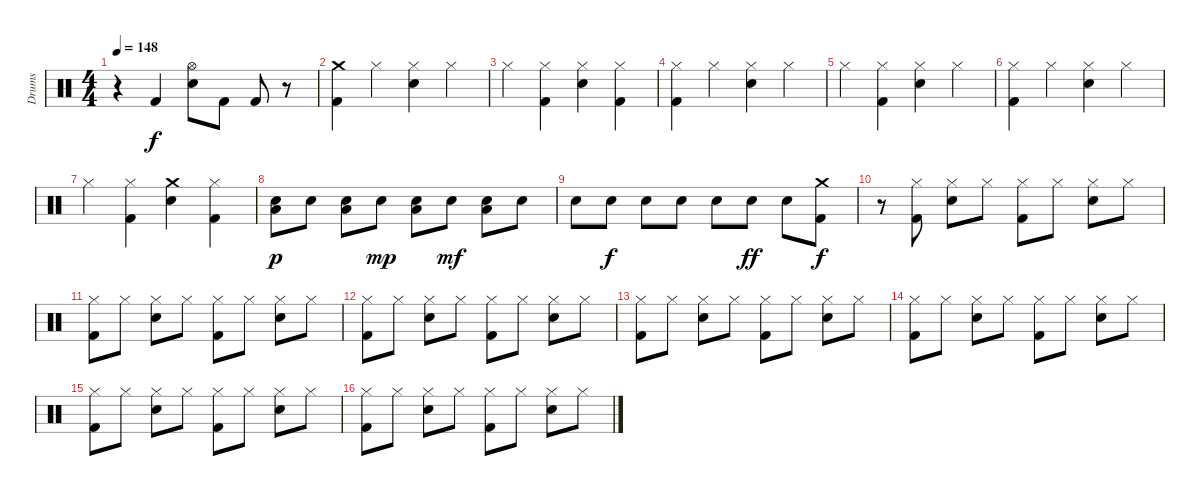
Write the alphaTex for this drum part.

\track ("Drums" "Drums") {instrument percussion}
\staff {score}
\articulation defaults
\ts (4 4)
\tempo 148
\clef neutral
\ks c
r.4{dy f} "Kick (hit) 2".4 ("Snare (hit) 2" "Hi-Hat (open)").8 "Kick (hit) 2".8 "Kick (hit) 2".8 r.8 |
("Kick (hit) 2" "Crash medium (hit)").4 "Hi-Hat (closed)".4 ("Snare (hit) 2" "Hi-Hat (closed)").4 "Hi-Hat (closed)".4 |
"Hi-Hat (closed)".4 ("Kick (hit) 2" "Hi-Hat (closed)").4 ("Snare (hit) 2" "Hi-Hat (closed)").4 ("Kick (hit) 2" "Hi-Hat (closed)").4 |
("Kick (hit) 2" "Hi-Hat (closed)").4 "Hi-Hat (closed)".4 ("Snare (hit) 2" "Hi-Hat (closed)").4 "Hi-Hat (closed)".4 |
"Hi-Hat (closed)".4 ("Kick (hit) 2" "Hi-Hat (closed)").4 ("Snare (hit) 2" "Hi-Hat (closed)").4 "Hi-Hat (closed)".4 |
("Kick (hit) 2" "Hi-Hat (closed)").4 "Hi-Hat (closed)".4 ("Snare (hit) 2" "Hi-Hat (closed)").4 "Hi-Hat (closed)".4 |
"Hi-Hat (closed)".4 ("Kick (hit) 2" "Hi-Hat (closed)").4 ("Snare (hit) 2" "Crash medium (hit)").4 ("Kick (hit) 2" "Hi-Hat (closed)").4 |
("Snare (hit) 2" "Low Tom (hit)").8{dy p} "Snare (hit) 2".8 ("Snare (hit) 2" "Low Tom (hit)").8 "Snare (hit) 2".8{dy mp} ("Snare (hit) 2" "Low Tom (hit)").8 "Snare (hit) 2".8{dy mf} ("Snare (hit) 2" "Low Tom (hit)").8 "Snare (hit) 2".8 |
"Snare (hit) 2".8 "Snare (hit) 2".8{dy f} "Snare (hit) 2".8 "Snare (hit) 2".8 "Snare (hit) 2".8 "Snare (hit) 2".8{dy ff} "Snare (hit) 2".8 ("Kick (hit) 2" "Crash medium (hit)").8{dy f} |
r.8 ("Kick (hit) 2" "Hi-Hat (closed)").8 ("Snare (hit) 2" "Hi-Hat (closed)").8 "Hi-Hat (closed)".8 ("Kick (hit) 2" "Hi-Hat (closed)").8 "Hi-Hat (closed)".8 ("Snare (hit) 2" "Hi-Hat (closed)").8 "Hi-Hat (closed)".8 |
("Kick (hit) 2" "Hi-Hat (closed)").8 "Hi-Hat (closed)".8 ("Snare (hit) 2" "Hi-Hat (closed)").8 "Hi-Hat (closed)".8 ("Kick (hit) 2" "Hi-Hat (closed)").8 "Hi-Hat (closed)".8 ("Snare (hit) 2" "Hi-Hat (closed)").8 "Hi-Hat (closed)".8 |
("Kick (hit) 2" "Hi-Hat (closed)").8 "Hi-Hat (closed)".8 ("Snare (hit) 2" "Hi-Hat (closed)").8 "Hi-Hat (closed)".8 ("Kick (hit) 2" "Hi-Hat (closed)").8 "Hi-Hat (closed)".8 ("Snare (hit) 2" "Hi-Hat (closed)").8 "Hi-Hat (closed)".8 |
("Kick (hit) 2" "Hi-Hat (closed)").8 "Hi-Hat (closed)".8 ("Snare (hit) 2" "Hi-Hat (closed)").8 "Hi-Hat (closed)".8 ("Kick (hit) 2" "Hi-Hat (closed)").8 "Hi-Hat (closed)".8 ("Snare (hit) 2" "Hi-Hat (closed)").8 "Hi-Hat (closed)".8 |
("Kick (hit) 2" "Hi-Hat (closed)").8 "Hi-Hat (closed)".8 ("Snare (hit) 2" "Hi-Hat (closed)").8 "Hi-Hat (closed)".8 ("Kick (hit) 2" "Hi-Hat (closed)").8 "Hi-Hat (closed)".8 ("Snare (hit) 2" "Hi-Hat (closed)").8 "Hi-Hat (closed)".8 |
("Kick (hit) 2" "Hi-Hat (closed)").8 "Hi-Hat (closed)".8 ("Snare (hit) 2" "Hi-Hat (closed)").8 "Hi-Hat (closed)".8 ("Kick (hit) 2" "Hi-Hat (closed)").8 "Hi-Hat (closed)".8 ("Snare (hit) 2" "Hi-Hat (closed)").8 "Hi-Hat (closed)".8 |
("Kick (hit) 2" "Hi-Hat (closed)").8 "Hi-Hat (closed)".8 ("Snare (hit) 2" "Hi-Hat (closed)").8 "Hi-Hat (closed)".8 ("Kick (hit) 2" "Hi-Hat (closed)").8 "Hi-Hat (closed)".8 ("Snare (hit) 2" "Hi-Hat (closed)").8 "Hi-Hat (closed)".8
